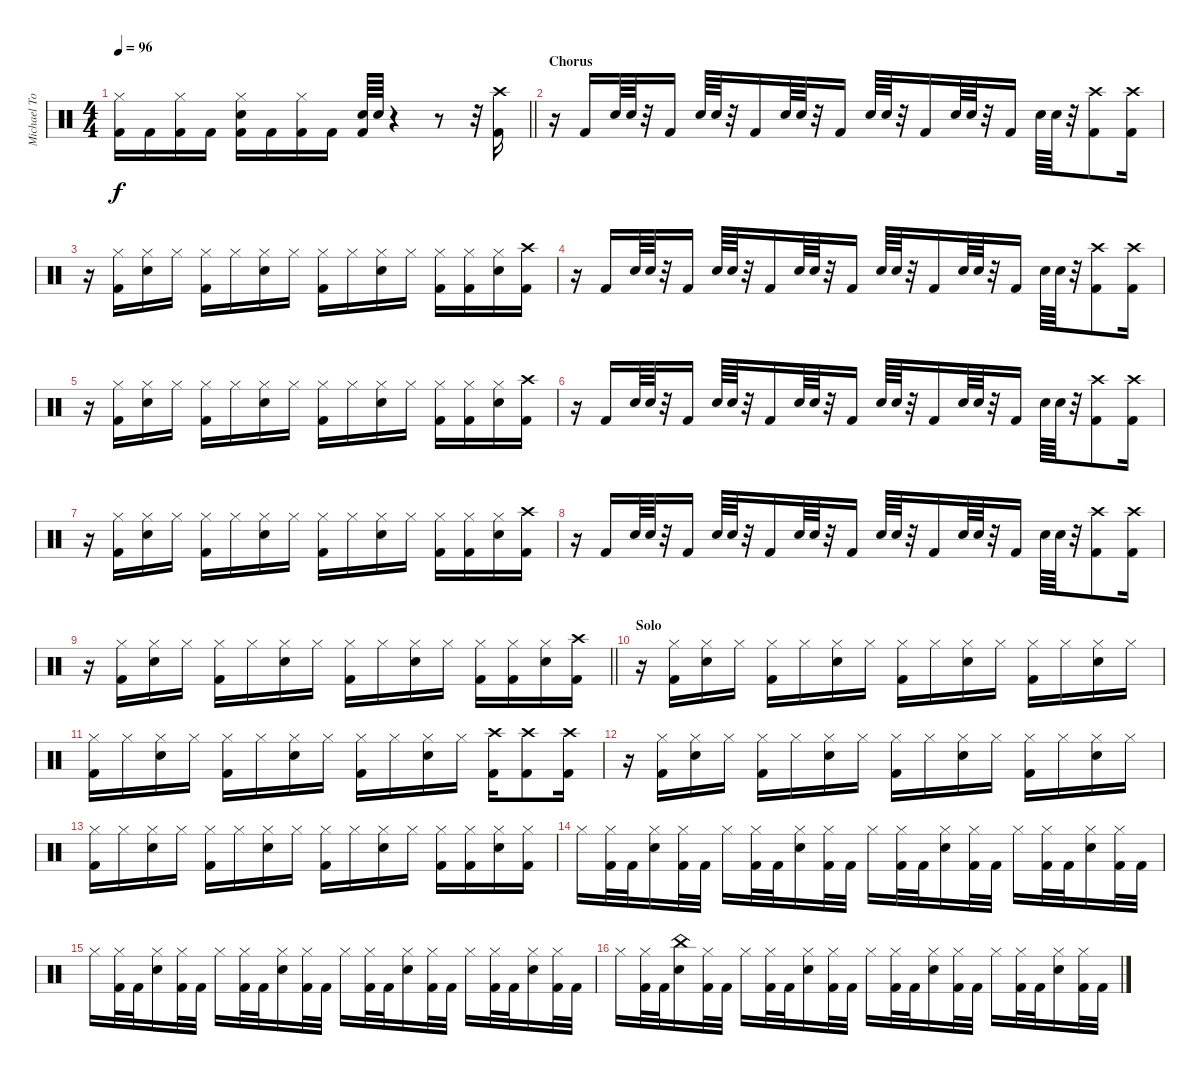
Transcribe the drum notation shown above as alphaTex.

\track ("Michael Tomas (Drums)" "Michael To") {instrument percussion}
\staff {score}
\articulation defaults
\ts (4 4)
\tempo 96
\clef neutral
\barLineRight lightlight
\ks c
("Hi-Hat (closed)" "Kick (hit) 2").16{dy f} "Kick (hit) 2".16 ("Hi-Hat (closed)" "Kick (hit) 2").16 "Kick (hit) 2".16 ("Hi-Hat (closed)" "Snare (hit) 2" "Kick (hit) 2").16 "Kick (hit) 2".16 ("Hi-Hat (closed)" "Kick (hit) 2").16 "Kick (hit) 2".16 ("Snare (hit) 2" "Kick (hit) 2").64 "Snare (hit) 2".64 r.4 r.8 r.32 ("Crash high (hit)" "Kick (hit) 2").16 |
\section ("" "Chorus")
r.16 "Kick (hit) 2".16 "Snare (hit) 2".64 "Snare (hit) 2".64 r.32 "Kick (hit) 2".16 "Snare (hit) 2".64 "Snare (hit) 2".64 r.32 "Kick (hit) 2".16 "Snare (hit) 2".64 "Snare (hit) 2".64 r.32 "Kick (hit) 2".16 "Snare (hit) 2".64 "Snare (hit) 2".64 r.32 "Kick (hit) 2".16 "Snare (hit) 2".64 "Snare (hit) 2".64 r.32 "Kick (hit) 2".16 "Snare (hit) 2".64 "Snare (hit) 2".64 r.32 ("Crash high (hit)" "Kick (hit) 2").8 ("Crash high (hit)" "Kick (hit) 2").16 |
r.16 ("Hi-Hat (closed)" "Kick (hit) 2").16 ("Hi-Hat (closed)" "Snare (hit) 2").16 "Hi-Hat (closed)".16 ("Hi-Hat (closed)" "Kick (hit) 2").16 "Hi-Hat (closed)".16 ("Hi-Hat (closed)" "Snare (hit) 2").16 "Hi-Hat (closed)".16 ("Hi-Hat (closed)" "Kick (hit) 2").16 "Hi-Hat (closed)".16 ("Hi-Hat (closed)" "Snare (hit) 2").16 "Hi-Hat (closed)".16 ("Hi-Hat (closed)" "Kick (hit) 2").16 ("Hi-Hat (closed)" "Kick (hit) 2").16 ("Hi-Hat (closed)" "Snare (hit) 2").16 ("Crash high (hit)" "Kick (hit) 2").16 |
r.16 "Kick (hit) 2".16 "Snare (hit) 2".64 "Snare (hit) 2".64 r.32 "Kick (hit) 2".16 "Snare (hit) 2".64 "Snare (hit) 2".64 r.32 "Kick (hit) 2".16 "Snare (hit) 2".64 "Snare (hit) 2".64 r.32 "Kick (hit) 2".16 "Snare (hit) 2".64 "Snare (hit) 2".64 r.32 "Kick (hit) 2".16 "Snare (hit) 2".64 "Snare (hit) 2".64 r.32 "Kick (hit) 2".16 "Snare (hit) 2".64 "Snare (hit) 2".64 r.32 ("Crash high (hit)" "Kick (hit) 2").8 ("Crash high (hit)" "Kick (hit) 2").16 |
r.16 ("Hi-Hat (closed)" "Kick (hit) 2").16 ("Hi-Hat (closed)" "Snare (hit) 2").16 "Hi-Hat (closed)".16 ("Hi-Hat (closed)" "Kick (hit) 2").16 "Hi-Hat (closed)".16 ("Hi-Hat (closed)" "Snare (hit) 2").16 "Hi-Hat (closed)".16 ("Hi-Hat (closed)" "Kick (hit) 2").16 "Hi-Hat (closed)".16 ("Hi-Hat (closed)" "Snare (hit) 2").16 "Hi-Hat (closed)".16 ("Hi-Hat (closed)" "Kick (hit) 2").16 ("Hi-Hat (closed)" "Kick (hit) 2").16 ("Hi-Hat (closed)" "Snare (hit) 2").16 ("Crash high (hit)" "Kick (hit) 2").16 |
r.16 "Kick (hit) 2".16 "Snare (hit) 2".64 "Snare (hit) 2".64 r.32 "Kick (hit) 2".16 "Snare (hit) 2".64 "Snare (hit) 2".64 r.32 "Kick (hit) 2".16 "Snare (hit) 2".64 "Snare (hit) 2".64 r.32 "Kick (hit) 2".16 "Snare (hit) 2".64 "Snare (hit) 2".64 r.32 "Kick (hit) 2".16 "Snare (hit) 2".64 "Snare (hit) 2".64 r.32 "Kick (hit) 2".16 "Snare (hit) 2".64 "Snare (hit) 2".64 r.32 ("Crash high (hit)" "Kick (hit) 2").8 ("Crash high (hit)" "Kick (hit) 2").16 |
r.16 ("Hi-Hat (closed)" "Kick (hit) 2").16 ("Hi-Hat (closed)" "Snare (hit) 2").16 "Hi-Hat (closed)".16 ("Hi-Hat (closed)" "Kick (hit) 2").16 "Hi-Hat (closed)".16 ("Hi-Hat (closed)" "Snare (hit) 2").16 "Hi-Hat (closed)".16 ("Hi-Hat (closed)" "Kick (hit) 2").16 "Hi-Hat (closed)".16 ("Hi-Hat (closed)" "Snare (hit) 2").16 "Hi-Hat (closed)".16 ("Hi-Hat (closed)" "Kick (hit) 2").16 ("Hi-Hat (closed)" "Kick (hit) 2").16 ("Hi-Hat (closed)" "Snare (hit) 2").16 ("Crash high (hit)" "Kick (hit) 2").16 |
r.16 "Kick (hit) 2".16 "Snare (hit) 2".64 "Snare (hit) 2".64 r.32 "Kick (hit) 2".16 "Snare (hit) 2".64 "Snare (hit) 2".64 r.32 "Kick (hit) 2".16 "Snare (hit) 2".64 "Snare (hit) 2".64 r.32 "Kick (hit) 2".16 "Snare (hit) 2".64 "Snare (hit) 2".64 r.32 "Kick (hit) 2".16 "Snare (hit) 2".64 "Snare (hit) 2".64 r.32 "Kick (hit) 2".16 "Snare (hit) 2".64 "Snare (hit) 2".64 r.32 ("Crash high (hit)" "Kick (hit) 2").8 ("Crash high (hit)" "Kick (hit) 2").16 |
\barLineRight lightlight
r.16 ("Hi-Hat (closed)" "Kick (hit) 2").16 ("Hi-Hat (closed)" "Snare (hit) 2").16 "Hi-Hat (closed)".16 ("Hi-Hat (closed)" "Kick (hit) 2").16 "Hi-Hat (closed)".16 ("Hi-Hat (closed)" "Snare (hit) 2").16 "Hi-Hat (closed)".16 ("Hi-Hat (closed)" "Kick (hit) 2").16 "Hi-Hat (closed)".16 ("Hi-Hat (closed)" "Snare (hit) 2").16 "Hi-Hat (closed)".16 ("Hi-Hat (closed)" "Kick (hit) 2").16 ("Hi-Hat (closed)" "Kick (hit) 2").16 ("Hi-Hat (closed)" "Snare (hit) 2").16 ("Crash high (hit)" "Kick (hit) 2").16 |
\section ("" "Solo")
r.16 ("Hi-Hat (closed)" "Kick (hit) 2").16 ("Hi-Hat (closed)" "Snare (hit) 2").16 "Hi-Hat (closed)".16 ("Hi-Hat (closed)" "Kick (hit) 2").16 "Hi-Hat (closed)".16 ("Hi-Hat (closed)" "Snare (hit) 2").16 "Hi-Hat (closed)".16 ("Hi-Hat (closed)" "Kick (hit) 2").16 "Hi-Hat (closed)".16 ("Hi-Hat (closed)" "Snare (hit) 2").16 "Hi-Hat (closed)".16 ("Hi-Hat (closed)" "Kick (hit) 2").16 "Hi-Hat (closed)".16 ("Hi-Hat (closed)" "Snare (hit) 2").16 "Hi-Hat (closed)".16 |
("Hi-Hat (closed)" "Kick (hit) 2").16 "Hi-Hat (closed)".16 ("Hi-Hat (closed)" "Snare (hit) 2").16 "Hi-Hat (closed)".16 ("Hi-Hat (closed)" "Kick (hit) 2").16 "Hi-Hat (closed)".16 ("Hi-Hat (closed)" "Snare (hit) 2").16 "Hi-Hat (closed)".16 ("Hi-Hat (closed)" "Kick (hit) 2").16 "Hi-Hat (closed)".16 ("Hi-Hat (closed)" "Snare (hit) 2").16 "Hi-Hat (closed)".16 ("Crash high (hit)" "Kick (hit) 2").16 ("Crash high (hit)" "Kick (hit) 2").8 ("Crash high (hit)" "Kick (hit) 2").16 |
r.16 ("Hi-Hat (closed)" "Kick (hit) 2").16 ("Hi-Hat (closed)" "Snare (hit) 2").16 "Hi-Hat (closed)".16 ("Hi-Hat (closed)" "Kick (hit) 2").16 "Hi-Hat (closed)".16 ("Hi-Hat (closed)" "Snare (hit) 2").16 "Hi-Hat (closed)".16 ("Hi-Hat (closed)" "Kick (hit) 2").16 "Hi-Hat (closed)".16 ("Hi-Hat (closed)" "Snare (hit) 2").16 "Hi-Hat (closed)".16 ("Hi-Hat (closed)" "Kick (hit) 2").16 "Hi-Hat (closed)".16 ("Hi-Hat (closed)" "Snare (hit) 2").16 "Hi-Hat (closed)".16 |
("Hi-Hat (closed)" "Kick (hit) 2").16 "Hi-Hat (closed)".16 ("Hi-Hat (closed)" "Snare (hit) 2").16 "Hi-Hat (closed)".16 ("Hi-Hat (closed)" "Kick (hit) 2").16 "Hi-Hat (closed)".16 ("Hi-Hat (closed)" "Snare (hit) 2").16 "Hi-Hat (closed)".16 ("Hi-Hat (closed)" "Kick (hit) 2").16 "Hi-Hat (closed)".16 ("Hi-Hat (closed)" "Snare (hit) 2").16 "Hi-Hat (closed)".16 ("Hi-Hat (closed)" "Kick (hit) 2").16 ("Hi-Hat (closed)" "Kick (hit) 2").16 ("Hi-Hat (closed)" "Snare (hit) 2").16 ("Hi-Hat (closed)" "Kick (hit) 2").16 |
"Hi-Hat (closed)".16 ("Hi-Hat (closed)" "Kick (hit) 2").32 "Kick (hit) 2".32 ("Hi-Hat (closed)" "Snare (hit) 2").16 ("Hi-Hat (closed)" "Kick (hit) 2").32 "Kick (hit) 2".32 "Hi-Hat (closed)".16 ("Hi-Hat (closed)" "Kick (hit) 2").32 "Kick (hit) 2".32 ("Hi-Hat (closed)" "Snare (hit) 2").16 ("Hi-Hat (closed)" "Kick (hit) 2").32 "Kick (hit) 2".32 "Hi-Hat (closed)".16 ("Hi-Hat (closed)" "Kick (hit) 2").32 "Kick (hit) 2".32 ("Hi-Hat (closed)" "Snare (hit) 2").16 ("Hi-Hat (closed)" "Kick (hit) 2").32 "Kick (hit) 2".32 "Hi-Hat (closed)".16 ("Hi-Hat (closed)" "Kick (hit) 2").32 "Kick (hit) 2".32 ("Hi-Hat (closed)" "Snare (hit) 2").16 ("Hi-Hat (closed)" "Kick (hit) 2").32 "Kick (hit) 2".32 |
"Hi-Hat (closed)".16 ("Hi-Hat (closed)" "Kick (hit) 2").32 "Kick (hit) 2".32 ("Hi-Hat (closed)" "Snare (hit) 2").16 ("Hi-Hat (closed)" "Kick (hit) 2").32 "Kick (hit) 2".32 "Hi-Hat (closed)".16 ("Hi-Hat (closed)" "Kick (hit) 2").32 "Kick (hit) 2".32 ("Hi-Hat (closed)" "Snare (hit) 2").16 ("Hi-Hat (closed)" "Kick (hit) 2").32 "Kick (hit) 2".32 "Hi-Hat (closed)".16 ("Hi-Hat (closed)" "Kick (hit) 2").32 "Kick (hit) 2".32 ("Hi-Hat (closed)" "Snare (hit) 2").16 ("Hi-Hat (closed)" "Kick (hit) 2").32 "Kick (hit) 2".32 "Hi-Hat (closed)".16 ("Hi-Hat (closed)" "Kick (hit) 2").32 "Kick (hit) 2".32 ("Hi-Hat (closed)" "Snare (hit) 2").16 ("Hi-Hat (closed)" "Kick (hit) 2").32 "Kick (hit) 2".32 |
"Hi-Hat (closed)".16 ("Hi-Hat (closed)" "Kick (hit) 2").32 "Kick (hit) 2".32 ("China (hit)" "Snare (hit) 2").16 ("Hi-Hat (closed)" "Kick (hit) 2").32 "Kick (hit) 2".32 "Hi-Hat (closed)".16 ("Hi-Hat (closed)" "Kick (hit) 2").32 "Kick (hit) 2".32 ("Hi-Hat (closed)" "Snare (hit) 2").16 ("Hi-Hat (closed)" "Kick (hit) 2").32 "Kick (hit) 2".32 "Hi-Hat (closed)".16 ("Hi-Hat (closed)" "Kick (hit) 2").32 "Kick (hit) 2".32 ("Hi-Hat (closed)" "Snare (hit) 2").16 ("Hi-Hat (closed)" "Kick (hit) 2").32 "Kick (hit) 2".32 "Hi-Hat (closed)".16 ("Hi-Hat (closed)" "Kick (hit) 2").32 "Kick (hit) 2".32 ("Hi-Hat (closed)" "Snare (hit) 2").16 ("Hi-Hat (closed)" "Kick (hit) 2").32 "Kick (hit) 2".32
